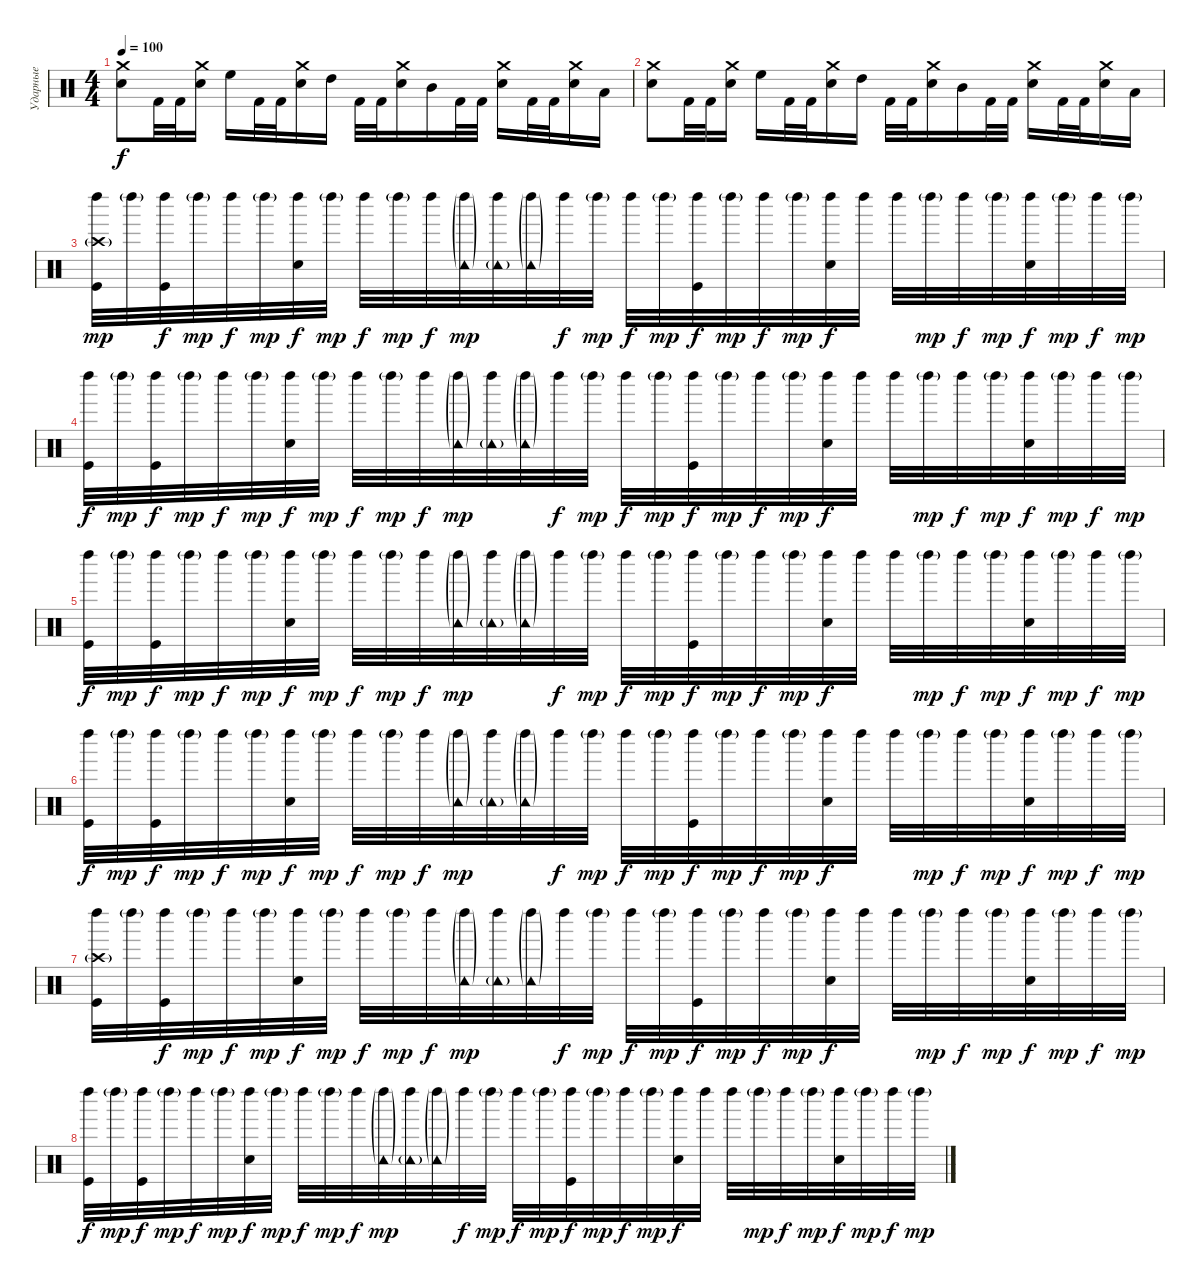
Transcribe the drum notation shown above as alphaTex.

\track ("Ударные" "Ударные") {instrument percussion}
\staff {score}
\articulation defaults
\ts (4 4)
\tempo 100
\clef neutral
\ks c
("Crash medium (hit)" "Electric Snare (hit)").8{dy f} "Kick (hit) 2".32 "Kick (hit) 2".32 ("Crash medium (hit)" "Electric Snare (hit)").16 "High Floor Tom (hit)".16 "Kick (hit) 2".32 "Kick (hit) 2".32 ("Crash medium (hit)" "Electric Snare (hit)").16 "High Tom (hit)".16 "Kick (hit) 2".32 "Kick (hit) 2".32 ("Crash medium (hit)" "Electric Snare (hit)").16 "Mid Tom (hit)".16 "Kick (hit) 2".32 "Kick (hit) 2".32 ("Crash medium (hit)" "Electric Snare (hit)").16 "Kick (hit) 2".32 "Kick (hit) 2".32 ("Crash medium (hit)" "Electric Snare (hit)").16 "Low Tom (hit)".16 |
("Crash medium (hit)" "Electric Snare (hit)").8 "Kick (hit) 2".32 "Kick (hit) 2".32 ("Crash medium (hit)" "Electric Snare (hit)").16 "High Floor Tom (hit)".16 "Kick (hit) 2".32 "Kick (hit) 2".32 ("Crash medium (hit)" "Electric Snare (hit)").16 "High Tom (hit)".16 "Kick (hit) 2".32 "Kick (hit) 2".32 ("Crash medium (hit)" "Electric Snare (hit)").16 "Mid Tom (hit)".16 "Kick (hit) 2".32 "Kick (hit) 2".32 ("Crash medium (hit)" "Electric Snare (hit)").16 "Kick (hit) 2".32 "Kick (hit) 2".32 ("Crash medium (hit)" "Electric Snare (hit)").16 "Low Tom (hit)".16 |
("Left Maraca (hit)" "Crash high (hit)"{g} "Kick (hit)").32{dy mp} "Left Maraca (hit)"{g}.32 ("Left Maraca (hit)" "Kick (hit)").32{dy f} "Left Maraca (hit)"{g}.32{dy mp} "Left Maraca (hit)".32{dy f} "Left Maraca (hit)"{g}.32{dy mp} ("Left Maraca (hit)" "Electric Snare (hit)").32{dy f} "Left Maraca (hit)"{g}.32{dy mp} "Left Maraca (hit)".32{dy f} "Left Maraca (hit)"{g}.32{dy mp} "Left Maraca (hit)".32{dy f} ("Left Maraca (hit)"{g} "Tambourine (hit)"{g}).32{dy mp} ("Left Maraca (hit)" "Tambourine (hit)"{g}).32 ("Left Maraca (hit)"{g} "Tambourine (hit)"{g}).32 "Left Maraca (hit)".32{dy f} "Left Maraca (hit)"{g}.32{dy mp} "Left Maraca (hit)".32{dy f} "Left Maraca (hit)"{g}.32{dy mp} ("Left Maraca (hit)" "Kick (hit)").32{dy f} "Left Maraca (hit)"{g}.32{dy mp} "Left Maraca (hit)".32{dy f} "Left Maraca (hit)"{g}.32{dy mp} ("Left Maraca (hit)" "Electric Snare (hit)").32{dy f} "Left Maraca (hit)".32 "Left Maraca (hit)".32 "Left Maraca (hit)"{g}.32{dy mp} "Left Maraca (hit)".32{dy f} "Left Maraca (hit)"{g}.32{dy mp} ("Left Maraca (hit)" "Electric Snare (hit)").32{dy f} "Left Maraca (hit)"{g}.32{dy mp} "Left Maraca (hit)".32{dy f} "Left Maraca (hit)"{g}.32{dy mp} |
("Left Maraca (hit)" "Kick (hit)").32{dy f} "Left Maraca (hit)"{g}.32{dy mp} ("Left Maraca (hit)" "Kick (hit)").32{dy f} "Left Maraca (hit)"{g}.32{dy mp} "Left Maraca (hit)".32{dy f} "Left Maraca (hit)"{g}.32{dy mp} ("Left Maraca (hit)" "Electric Snare (hit)").32{dy f} "Left Maraca (hit)"{g}.32{dy mp} "Left Maraca (hit)".32{dy f} "Left Maraca (hit)"{g}.32{dy mp} "Left Maraca (hit)".32{dy f} ("Left Maraca (hit)"{g} "Tambourine (hit)"{g}).32{dy mp} ("Left Maraca (hit)" "Tambourine (hit)"{g}).32 ("Left Maraca (hit)"{g} "Tambourine (hit)"{g}).32 "Left Maraca (hit)".32{dy f} "Left Maraca (hit)"{g}.32{dy mp} "Left Maraca (hit)".32{dy f} "Left Maraca (hit)"{g}.32{dy mp} ("Left Maraca (hit)" "Kick (hit)").32{dy f} "Left Maraca (hit)"{g}.32{dy mp} "Left Maraca (hit)".32{dy f} "Left Maraca (hit)"{g}.32{dy mp} ("Left Maraca (hit)" "Electric Snare (hit)").32{dy f} "Left Maraca (hit)".32 "Left Maraca (hit)".32 "Left Maraca (hit)"{g}.32{dy mp} "Left Maraca (hit)".32{dy f} "Left Maraca (hit)"{g}.32{dy mp} ("Left Maraca (hit)" "Electric Snare (hit)").32{dy f} "Left Maraca (hit)"{g}.32{dy mp} "Left Maraca (hit)".32{dy f} "Left Maraca (hit)"{g}.32{dy mp} |
("Left Maraca (hit)" "Kick (hit)").32{dy f} "Left Maraca (hit)"{g}.32{dy mp} ("Left Maraca (hit)" "Kick (hit)").32{dy f} "Left Maraca (hit)"{g}.32{dy mp} "Left Maraca (hit)".32{dy f} "Left Maraca (hit)"{g}.32{dy mp} ("Left Maraca (hit)" "Electric Snare (hit)").32{dy f} "Left Maraca (hit)"{g}.32{dy mp} "Left Maraca (hit)".32{dy f} "Left Maraca (hit)"{g}.32{dy mp} "Left Maraca (hit)".32{dy f} ("Left Maraca (hit)"{g} "Tambourine (hit)"{g}).32{dy mp} ("Left Maraca (hit)" "Tambourine (hit)"{g}).32 ("Left Maraca (hit)"{g} "Tambourine (hit)"{g}).32 "Left Maraca (hit)".32{dy f} "Left Maraca (hit)"{g}.32{dy mp} "Left Maraca (hit)".32{dy f} "Left Maraca (hit)"{g}.32{dy mp} ("Left Maraca (hit)" "Kick (hit)").32{dy f} "Left Maraca (hit)"{g}.32{dy mp} "Left Maraca (hit)".32{dy f} "Left Maraca (hit)"{g}.32{dy mp} ("Left Maraca (hit)" "Electric Snare (hit)").32{dy f} "Left Maraca (hit)".32 "Left Maraca (hit)".32 "Left Maraca (hit)"{g}.32{dy mp} "Left Maraca (hit)".32{dy f} "Left Maraca (hit)"{g}.32{dy mp} ("Left Maraca (hit)" "Electric Snare (hit)").32{dy f} "Left Maraca (hit)"{g}.32{dy mp} "Left Maraca (hit)".32{dy f} "Left Maraca (hit)"{g}.32{dy mp} |
("Left Maraca (hit)" "Kick (hit)").32{dy f} "Left Maraca (hit)"{g}.32{dy mp} ("Left Maraca (hit)" "Kick (hit)").32{dy f} "Left Maraca (hit)"{g}.32{dy mp} "Left Maraca (hit)".32{dy f} "Left Maraca (hit)"{g}.32{dy mp} ("Left Maraca (hit)" "Electric Snare (hit)").32{dy f} "Left Maraca (hit)"{g}.32{dy mp} "Left Maraca (hit)".32{dy f} "Left Maraca (hit)"{g}.32{dy mp} "Left Maraca (hit)".32{dy f} ("Left Maraca (hit)"{g} "Tambourine (hit)"{g}).32{dy mp} ("Left Maraca (hit)" "Tambourine (hit)"{g}).32 ("Left Maraca (hit)"{g} "Tambourine (hit)"{g}).32 "Left Maraca (hit)".32{dy f} "Left Maraca (hit)"{g}.32{dy mp} "Left Maraca (hit)".32{dy f} "Left Maraca (hit)"{g}.32{dy mp} ("Left Maraca (hit)" "Kick (hit)").32{dy f} "Left Maraca (hit)"{g}.32{dy mp} "Left Maraca (hit)".32{dy f} "Left Maraca (hit)"{g}.32{dy mp} ("Left Maraca (hit)" "Electric Snare (hit)").32{dy f} "Left Maraca (hit)".32 "Left Maraca (hit)".32 "Left Maraca (hit)"{g}.32{dy mp} "Left Maraca (hit)".32{dy f} "Left Maraca (hit)"{g}.32{dy mp} ("Left Maraca (hit)" "Electric Snare (hit)").32{dy f} "Left Maraca (hit)"{g}.32{dy mp} "Left Maraca (hit)".32{dy f} "Left Maraca (hit)"{g}.32{dy mp} |
("Left Maraca (hit)" "Crash high (hit)"{g} "Kick (hit)").32 "Left Maraca (hit)"{g}.32 ("Left Maraca (hit)" "Kick (hit)").32{dy f} "Left Maraca (hit)"{g}.32{dy mp} "Left Maraca (hit)".32{dy f} "Left Maraca (hit)"{g}.32{dy mp} ("Left Maraca (hit)" "Electric Snare (hit)").32{dy f} "Left Maraca (hit)"{g}.32{dy mp} "Left Maraca (hit)".32{dy f} "Left Maraca (hit)"{g}.32{dy mp} "Left Maraca (hit)".32{dy f} ("Left Maraca (hit)"{g} "Tambourine (hit)"{g}).32{dy mp} ("Left Maraca (hit)" "Tambourine (hit)"{g}).32 ("Left Maraca (hit)"{g} "Tambourine (hit)"{g}).32 "Left Maraca (hit)".32{dy f} "Left Maraca (hit)"{g}.32{dy mp} "Left Maraca (hit)".32{dy f} "Left Maraca (hit)"{g}.32{dy mp} ("Left Maraca (hit)" "Kick (hit)").32{dy f} "Left Maraca (hit)"{g}.32{dy mp} "Left Maraca (hit)".32{dy f} "Left Maraca (hit)"{g}.32{dy mp} ("Left Maraca (hit)" "Electric Snare (hit)").32{dy f} "Left Maraca (hit)".32 "Left Maraca (hit)".32 "Left Maraca (hit)"{g}.32{dy mp} "Left Maraca (hit)".32{dy f} "Left Maraca (hit)"{g}.32{dy mp} ("Left Maraca (hit)" "Electric Snare (hit)").32{dy f} "Left Maraca (hit)"{g}.32{dy mp} "Left Maraca (hit)".32{dy f} "Left Maraca (hit)"{g}.32{dy mp} |
("Left Maraca (hit)" "Kick (hit)").32{dy f} "Left Maraca (hit)"{g}.32{dy mp} ("Left Maraca (hit)" "Kick (hit)").32{dy f} "Left Maraca (hit)"{g}.32{dy mp} "Left Maraca (hit)".32{dy f} "Left Maraca (hit)"{g}.32{dy mp} ("Left Maraca (hit)" "Electric Snare (hit)").32{dy f} "Left Maraca (hit)"{g}.32{dy mp} "Left Maraca (hit)".32{dy f} "Left Maraca (hit)"{g}.32{dy mp} "Left Maraca (hit)".32{dy f} ("Left Maraca (hit)"{g} "Tambourine (hit)"{g}).32{dy mp} ("Left Maraca (hit)" "Tambourine (hit)"{g}).32 ("Left Maraca (hit)"{g} "Tambourine (hit)"{g}).32 "Left Maraca (hit)".32{dy f} "Left Maraca (hit)"{g}.32{dy mp} "Left Maraca (hit)".32{dy f} "Left Maraca (hit)"{g}.32{dy mp} ("Left Maraca (hit)" "Kick (hit)").32{dy f} "Left Maraca (hit)"{g}.32{dy mp} "Left Maraca (hit)".32{dy f} "Left Maraca (hit)"{g}.32{dy mp} ("Left Maraca (hit)" "Electric Snare (hit)").32{dy f} "Left Maraca (hit)".32 "Left Maraca (hit)".32 "Left Maraca (hit)"{g}.32{dy mp} "Left Maraca (hit)".32{dy f} "Left Maraca (hit)"{g}.32{dy mp} ("Left Maraca (hit)" "Electric Snare (hit)").32{dy f} "Left Maraca (hit)"{g}.32{dy mp} "Left Maraca (hit)".32{dy f} "Left Maraca (hit)"{g}.32{dy mp}
